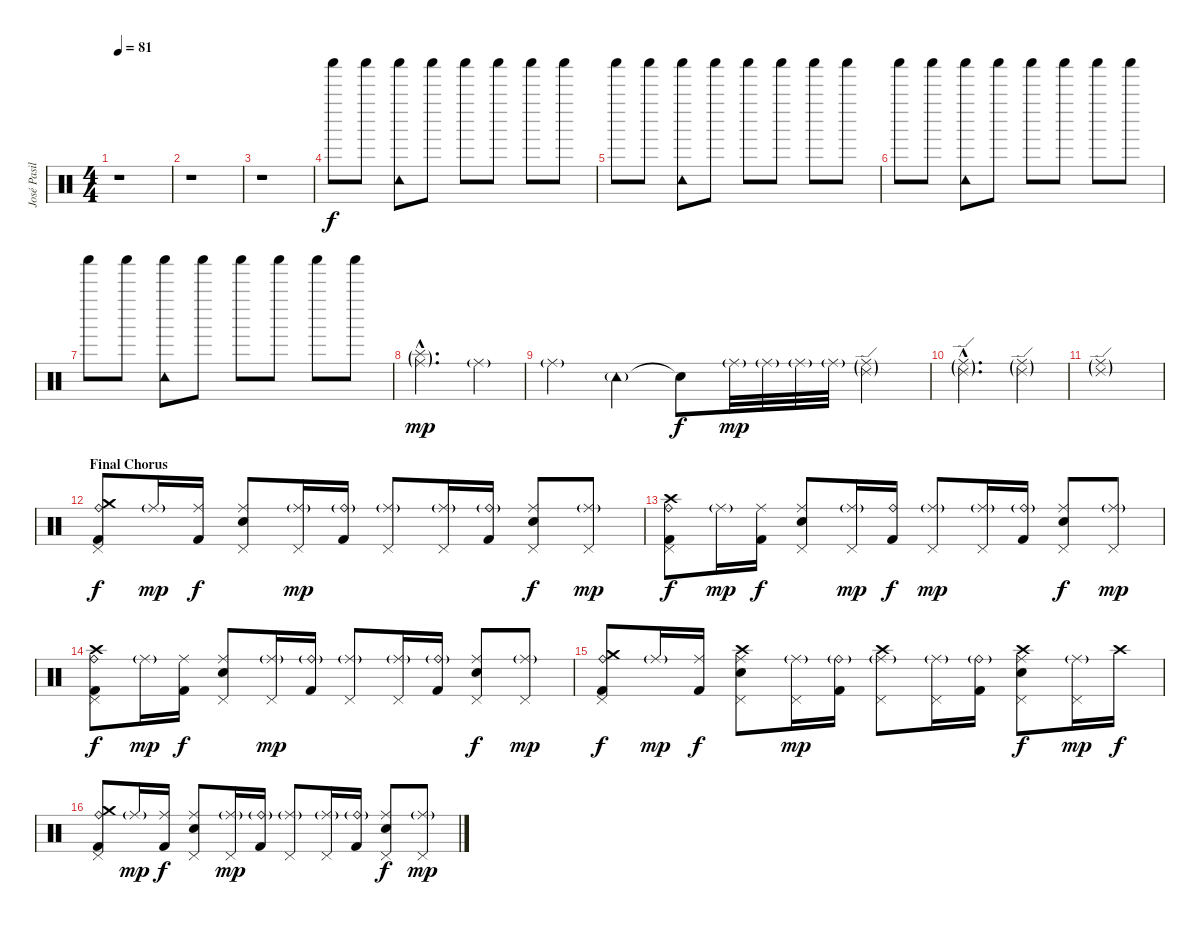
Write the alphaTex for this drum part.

\track ("José Pasillas [Drums]" "José Pasil") {instrument percussion}
\staff {score}
\articulation defaults
\ts (4 4)
\tempo 81
\clef neutral
\ks c
r.1{dy f} |
r.1 |
r.1 |
"Shaker (hit)".8 "Shaker (hit)".8 ("Shaker (hit)" "Tambourine (hit)").8 "Shaker (hit)".8 "Shaker (hit)".8 "Shaker (hit)".8 "Shaker (hit)".8 "Shaker (hit)".8 |
"Shaker (hit)".8 "Shaker (hit)".8 ("Shaker (hit)" "Tambourine (hit)").8 "Shaker (hit)".8 "Shaker (hit)".8 "Shaker (hit)".8 "Shaker (hit)".8 "Shaker (hit)".8 |
"Shaker (hit)".8 "Shaker (hit)".8 ("Shaker (hit)" "Tambourine (hit)").8 "Shaker (hit)".8 "Shaker (hit)".8 "Shaker (hit)".8 "Shaker (hit)".8 "Shaker (hit)".8 |
"Shaker (hit)".8 "Shaker (hit)".8 ("Shaker (hit)" "Tambourine (hit)").8 "Shaker (hit)".8 "Shaker (hit)".8 "Shaker (hit)".8 "Shaker (hit)".8 "Shaker (hit)".8 |
("Splash (hit)"{g hac} "Ride (middle)"{g hac}).2{d dy mp} "Ride (middle)"{g}.4 |
"Ride (middle)"{g}.4 "Tambourine (hit)"{g}.4 "Snare (hit)"{t}.8{dy f} "Ride (middle)"{g}.32{dy mp} "Ride (middle)"{g}.32 "Ride (middle)"{g}.32 "Ride (middle)"{g}.32 ("Ride (edge) 2"{g} "Ride (middle)"{g}).4 |
("Ride (edge) 2"{g hac} "Ride (middle)"{g hac}).2{d} ("Ride (edge) 2"{g} "Ride (middle)"{g}).4 |
("Ride (edge) 2"{g} "Ride (middle)"{g}).1 |
\section ("" "Final Chorus")
("Kick (hit) 2" "Crash medium (hit)" "Ride (bell)" "Pedal Hi-Hat (hit)").8{dy f} "Ride (middle)"{g}.16{dy mp} ("Kick (hit) 2" "Ride (middle)").16{dy f} ("Electric Snare (hit)" "Ride (middle)" "Pedal Hi-Hat (hit)").8 ("Ride (middle)"{g} "Pedal Hi-Hat (hit)").16{dy mp} ("Kick (hit) 2" "Ride (bell)"{g}).16 ("Ride (middle)"{g} "Pedal Hi-Hat (hit)").8 ("Ride (middle)"{g} "Pedal Hi-Hat (hit)").16 ("Kick (hit) 2" "Ride (bell)"{g}).16 ("Electric Snare (hit)" "Ride (middle)" "Pedal Hi-Hat (hit)").8{dy f} ("Ride (middle)"{g} "Pedal Hi-Hat (hit)").8{dy mp} |
("Kick (hit) 2" "Crash high (hit)" "Ride (bell)" "Pedal Hi-Hat (hit)").8{dy f} "Ride (middle)"{g}.16{dy mp} ("Kick (hit) 2" "Ride (middle)").16{dy f} ("Electric Snare (hit)" "Ride (middle)" "Pedal Hi-Hat (hit)").8 ("Ride (middle)"{g} "Pedal Hi-Hat (hit)").16{dy mp} ("Kick (hit) 2" "Ride (bell)").16{dy f} ("Ride (middle)"{g} "Pedal Hi-Hat (hit)").8{dy mp} ("Ride (middle)"{g} "Pedal Hi-Hat (hit)").16 ("Kick (hit) 2" "Ride (bell)"{g}).16 ("Electric Snare (hit)" "Ride (middle)" "Pedal Hi-Hat (hit)").8{dy f} ("Ride (middle)"{g} "Pedal Hi-Hat (hit)").8{dy mp} |
("Kick (hit) 2" "Crash high (hit)" "Ride (bell)" "Pedal Hi-Hat (hit)").8{dy f} "Ride (middle)"{g}.16{dy mp} ("Kick (hit) 2" "Ride (middle)").16{dy f} ("Electric Snare (hit)" "Ride (middle)" "Pedal Hi-Hat (hit)").8 ("Ride (middle)"{g} "Pedal Hi-Hat (hit)").16{dy mp} ("Kick (hit) 2" "Ride (bell)"{g}).16 ("Ride (middle)"{g} "Pedal Hi-Hat (hit)").8 ("Ride (middle)"{g} "Pedal Hi-Hat (hit)").16 ("Kick (hit) 2" "Ride (bell)"{g}).16 ("Electric Snare (hit)" "Ride (middle)" "Pedal Hi-Hat (hit)").8{dy f} ("Ride (middle)"{g} "Pedal Hi-Hat (hit)").8{dy mp} |
("Kick (hit) 2" "Crash medium (hit)" "Ride (bell)" "Pedal Hi-Hat (hit)").8{dy f} "Ride (middle)"{g}.16{dy mp} ("Kick (hit) 2" "Ride (middle)").16{dy f} ("Electric Snare (hit)" "Crash high (hit)" "Ride (middle)" "Pedal Hi-Hat (hit)").8 ("Ride (middle)"{g} "Pedal Hi-Hat (hit)").16{dy mp} ("Kick (hit) 2" "Ride (bell)"{g}).16 ("Crash high (hit)" "Ride (middle)"{g} "Pedal Hi-Hat (hit)").8 ("Ride (middle)"{g} "Pedal Hi-Hat (hit)").16 ("Kick (hit) 2" "Ride (bell)"{g}).16 ("Electric Snare (hit)" "Crash high (hit)" "Ride (middle)" "Pedal Hi-Hat (hit)").8{dy f} ("Ride (middle)"{g} "Pedal Hi-Hat (hit)").16{dy mp} "Crash high (hit)".16{dy f} |
("Kick (hit) 2" "Crash medium (hit)" "Ride (bell)" "Pedal Hi-Hat (hit)").8 "Ride (middle)"{g}.16{dy mp} ("Kick (hit) 2" "Ride (middle)").16{dy f} ("Electric Snare (hit)" "Ride (middle)" "Pedal Hi-Hat (hit)").8 ("Ride (middle)"{g} "Pedal Hi-Hat (hit)").16{dy mp} ("Kick (hit) 2" "Ride (bell)"{g}).16 ("Ride (middle)"{g} "Pedal Hi-Hat (hit)").8 ("Ride (middle)"{g} "Pedal Hi-Hat (hit)").16 ("Kick (hit) 2" "Ride (bell)"{g}).16 ("Electric Snare (hit)" "Ride (middle)" "Pedal Hi-Hat (hit)").8{dy f} ("Ride (middle)"{g} "Pedal Hi-Hat (hit)").8{dy mp}
